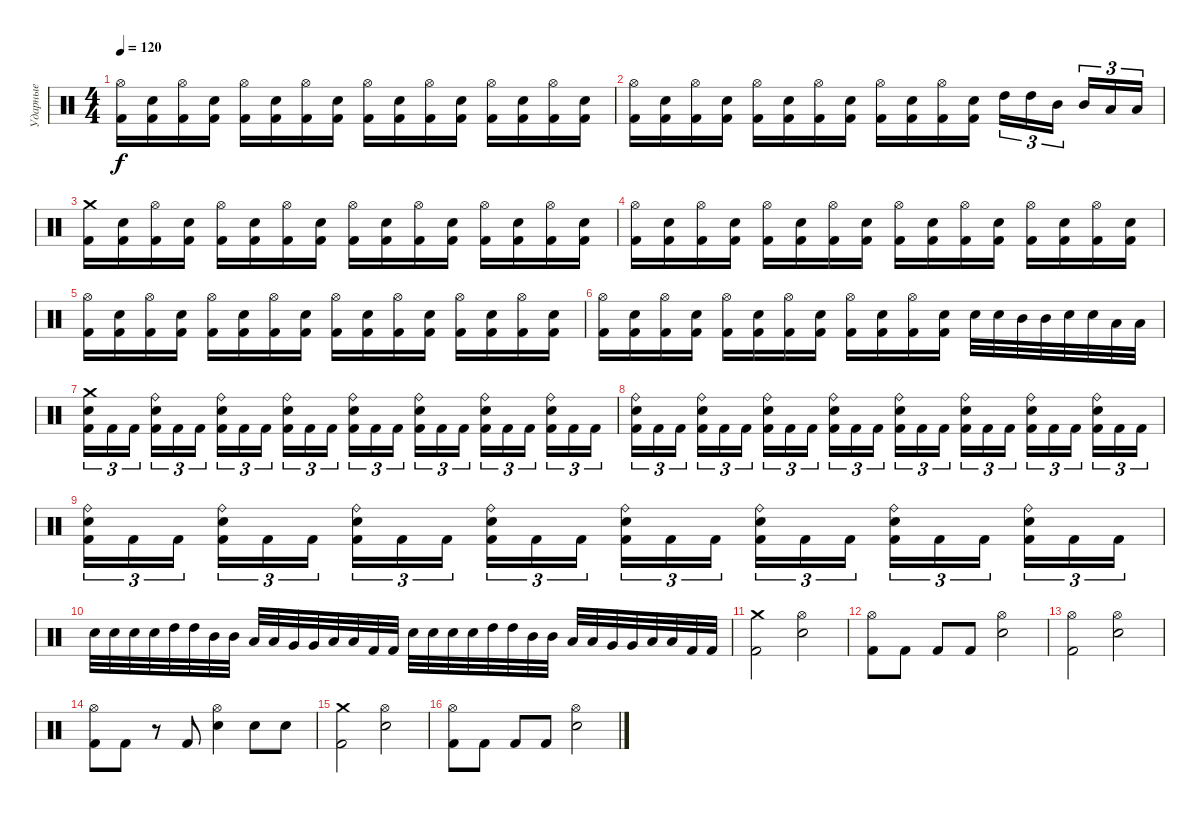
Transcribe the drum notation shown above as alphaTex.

\track ("Ударные" "Ударные") {instrument percussion}
\staff {score}
\articulation defaults
\ts (4 4)
\tempo 120
\clef neutral
\ks c
("Hi-Hat (open)" "Kick (hit) 2").16{dy f} ("Electric Snare (hit)" "Kick (hit) 2").16 ("Hi-Hat (open)" "Kick (hit) 2").16 ("Electric Snare (hit)" "Kick (hit) 2").16 ("Hi-Hat (open)" "Kick (hit) 2").16 ("Electric Snare (hit)" "Kick (hit) 2").16 ("Hi-Hat (open)" "Kick (hit) 2").16 ("Electric Snare (hit)" "Kick (hit) 2").16 ("Hi-Hat (open)" "Kick (hit) 2").16 ("Electric Snare (hit)" "Kick (hit) 2").16 ("Hi-Hat (open)" "Kick (hit) 2").16 ("Electric Snare (hit)" "Kick (hit) 2").16 ("Hi-Hat (open)" "Kick (hit) 2").16 ("Electric Snare (hit)" "Kick (hit) 2").16 ("Hi-Hat (open)" "Kick (hit) 2").16 ("Electric Snare (hit)" "Kick (hit) 2").16 |
("Hi-Hat (open)" "Kick (hit) 2").16 ("Electric Snare (hit)" "Kick (hit) 2").16 ("Hi-Hat (open)" "Kick (hit) 2").16 ("Electric Snare (hit)" "Kick (hit) 2").16 ("Hi-Hat (open)" "Kick (hit) 2").16 ("Electric Snare (hit)" "Kick (hit) 2").16 ("Hi-Hat (open)" "Kick (hit) 2").16 ("Electric Snare (hit)" "Kick (hit) 2").16 ("Hi-Hat (open)" "Kick (hit) 2").16 ("Electric Snare (hit)" "Kick (hit) 2").16 ("Hi-Hat (open)" "Kick (hit) 2").16 ("Electric Snare (hit)" "Kick (hit) 2").16 "High Tom (hit)".16{tu (3 2)} "High Tom (hit)".16{tu (3 2)} "Mid Tom (hit)".16{tu (3 2) beam splitsecondary} "Mid Tom (hit)".16{tu (3 2)} "Low Tom (hit)".16{tu (3 2)} "Low Tom (hit)".16{tu (3 2)} |
("Crash medium (hit)" "Kick (hit) 2").16 ("Electric Snare (hit)" "Kick (hit) 2").16 ("Hi-Hat (open)" "Kick (hit) 2").16 ("Electric Snare (hit)" "Kick (hit) 2").16 ("Hi-Hat (open)" "Kick (hit) 2").16 ("Electric Snare (hit)" "Kick (hit) 2").16 ("Hi-Hat (open)" "Kick (hit) 2").16 ("Electric Snare (hit)" "Kick (hit) 2").16 ("Hi-Hat (open)" "Kick (hit) 2").16 ("Electric Snare (hit)" "Kick (hit) 2").16 ("Hi-Hat (open)" "Kick (hit) 2").16 ("Electric Snare (hit)" "Kick (hit) 2").16 ("Hi-Hat (open)" "Kick (hit) 2").16 ("Electric Snare (hit)" "Kick (hit) 2").16 ("Hi-Hat (open)" "Kick (hit) 2").16 ("Electric Snare (hit)" "Kick (hit) 2").16 |
("Hi-Hat (open)" "Kick (hit) 2").16 ("Electric Snare (hit)" "Kick (hit) 2").16 ("Hi-Hat (open)" "Kick (hit) 2").16 ("Electric Snare (hit)" "Kick (hit) 2").16 ("Hi-Hat (open)" "Kick (hit) 2").16 ("Electric Snare (hit)" "Kick (hit) 2").16 ("Hi-Hat (open)" "Kick (hit) 2").16 ("Electric Snare (hit)" "Kick (hit) 2").16 ("Hi-Hat (open)" "Kick (hit) 2").16 ("Electric Snare (hit)" "Kick (hit) 2").16 ("Hi-Hat (open)" "Kick (hit) 2").16 ("Electric Snare (hit)" "Kick (hit) 2").16 ("Hi-Hat (open)" "Kick (hit) 2").16 ("Electric Snare (hit)" "Kick (hit) 2").16 ("Hi-Hat (open)" "Kick (hit) 2").16 ("Electric Snare (hit)" "Kick (hit) 2").16 |
("Hi-Hat (open)" "Kick (hit) 2").16 ("Electric Snare (hit)" "Kick (hit) 2").16 ("Hi-Hat (open)" "Kick (hit) 2").16 ("Electric Snare (hit)" "Kick (hit) 2").16 ("Hi-Hat (open)" "Kick (hit) 2").16 ("Electric Snare (hit)" "Kick (hit) 2").16 ("Hi-Hat (open)" "Kick (hit) 2").16 ("Electric Snare (hit)" "Kick (hit) 2").16 ("Hi-Hat (open)" "Kick (hit) 2").16 ("Electric Snare (hit)" "Kick (hit) 2").16 ("Hi-Hat (open)" "Kick (hit) 2").16 ("Electric Snare (hit)" "Kick (hit) 2").16 ("Hi-Hat (open)" "Kick (hit) 2").16 ("Electric Snare (hit)" "Kick (hit) 2").16 ("Hi-Hat (open)" "Kick (hit) 2").16 ("Electric Snare (hit)" "Kick (hit) 2").16 |
("Hi-Hat (open)" "Kick (hit) 2").16 ("Electric Snare (hit)" "Kick (hit) 2").16 ("Hi-Hat (open)" "Kick (hit) 2").16 ("Electric Snare (hit)" "Kick (hit) 2").16 ("Hi-Hat (open)" "Kick (hit) 2").16 ("Electric Snare (hit)" "Kick (hit) 2").16 ("Hi-Hat (open)" "Kick (hit) 2").16 ("Electric Snare (hit)" "Kick (hit) 2").16 ("Hi-Hat (open)" "Kick (hit) 2").16 ("Electric Snare (hit)" "Kick (hit) 2").16 ("Hi-Hat (open)" "Kick (hit) 2").16 ("Electric Snare (hit)" "Kick (hit) 2").16 "Electric Snare (hit)".32 "Electric Snare (hit)".32 "Mid Tom (hit)".32 "Mid Tom (hit)".32 "Electric Snare (hit)".32 "Electric Snare (hit)".32 "Low Tom (hit)".32 "Low Tom (hit)".32 |
("Crash medium (hit)" "Electric Snare (hit)" "Kick (hit) 2").16{tu (3 2)} "Kick (hit) 2".16{tu (3 2)} "Kick (hit) 2".16{tu (3 2) beam splitsecondary} ("Ride (bell)" "Electric Snare (hit)" "Kick (hit) 2").16{tu (3 2)} "Kick (hit) 2".16{tu (3 2)} "Kick (hit) 2".16{tu (3 2)} ("Ride (bell)" "Electric Snare (hit)" "Kick (hit) 2").16{tu (3 2)} "Kick (hit) 2".16{tu (3 2)} "Kick (hit) 2".16{tu (3 2) beam splitsecondary} ("Ride (bell)" "Electric Snare (hit)" "Kick (hit) 2").16{tu (3 2)} "Kick (hit) 2".16{tu (3 2)} "Kick (hit) 2".16{tu (3 2)} ("Ride (bell)" "Electric Snare (hit)" "Kick (hit) 2").16{tu (3 2)} "Kick (hit) 2".16{tu (3 2)} "Kick (hit) 2".16{tu (3 2) beam splitsecondary} ("Ride (bell)" "Electric Snare (hit)" "Kick (hit) 2").16{tu (3 2)} "Kick (hit) 2".16{tu (3 2)} "Kick (hit) 2".16{tu (3 2)} ("Ride (bell)" "Electric Snare (hit)" "Kick (hit) 2").16{tu (3 2)} "Kick (hit) 2".16{tu (3 2)} "Kick (hit) 2".16{tu (3 2) beam splitsecondary} ("Ride (bell)" "Electric Snare (hit)" "Kick (hit) 2").16{tu (3 2)} "Kick (hit) 2".16{tu (3 2)} "Kick (hit) 2".16{tu (3 2)} |
("Ride (bell)" "Electric Snare (hit)" "Kick (hit) 2").16{tu (3 2)} "Kick (hit) 2".16{tu (3 2)} "Kick (hit) 2".16{tu (3 2) beam splitsecondary} ("Ride (bell)" "Electric Snare (hit)" "Kick (hit) 2").16{tu (3 2)} "Kick (hit) 2".16{tu (3 2)} "Kick (hit) 2".16{tu (3 2)} ("Ride (bell)" "Electric Snare (hit)" "Kick (hit) 2").16{tu (3 2)} "Kick (hit) 2".16{tu (3 2)} "Kick (hit) 2".16{tu (3 2) beam splitsecondary} ("Ride (bell)" "Electric Snare (hit)" "Kick (hit) 2").16{tu (3 2)} "Kick (hit) 2".16{tu (3 2)} "Kick (hit) 2".16{tu (3 2)} ("Ride (bell)" "Electric Snare (hit)" "Kick (hit) 2").16{tu (3 2)} "Kick (hit) 2".16{tu (3 2)} "Kick (hit) 2".16{tu (3 2) beam splitsecondary} ("Ride (bell)" "Electric Snare (hit)" "Kick (hit) 2").16{tu (3 2)} "Kick (hit) 2".16{tu (3 2)} "Kick (hit) 2".16{tu (3 2)} ("Ride (bell)" "Electric Snare (hit)" "Kick (hit) 2").16{tu (3 2)} "Kick (hit) 2".16{tu (3 2)} "Kick (hit) 2".16{tu (3 2) beam splitsecondary} ("Ride (bell)" "Electric Snare (hit)" "Kick (hit) 2").16{tu (3 2)} "Kick (hit) 2".16{tu (3 2)} "Kick (hit) 2".16{tu (3 2)} |
("Ride (bell)" "Electric Snare (hit)" "Kick (hit) 2").16{tu (3 2)} "Kick (hit) 2".16{tu (3 2)} "Kick (hit) 2".16{tu (3 2) beam splitsecondary} ("Ride (bell)" "Electric Snare (hit)" "Kick (hit) 2").16{tu (3 2)} "Kick (hit) 2".16{tu (3 2)} "Kick (hit) 2".16{tu (3 2)} ("Ride (bell)" "Electric Snare (hit)" "Kick (hit) 2").16{tu (3 2)} "Kick (hit) 2".16{tu (3 2)} "Kick (hit) 2".16{tu (3 2) beam splitsecondary} ("Ride (bell)" "Electric Snare (hit)" "Kick (hit) 2").16{tu (3 2)} "Kick (hit) 2".16{tu (3 2)} "Kick (hit) 2".16{tu (3 2)} ("Ride (bell)" "Electric Snare (hit)" "Kick (hit) 2").16{tu (3 2)} "Kick (hit) 2".16{tu (3 2)} "Kick (hit) 2".16{tu (3 2) beam splitsecondary} ("Ride (bell)" "Electric Snare (hit)" "Kick (hit) 2").16{tu (3 2)} "Kick (hit) 2".16{tu (3 2)} "Kick (hit) 2".16{tu (3 2)} ("Ride (bell)" "Electric Snare (hit)" "Kick (hit) 2").16{tu (3 2)} "Kick (hit) 2".16{tu (3 2)} "Kick (hit) 2".16{tu (3 2) beam splitsecondary} ("Ride (bell)" "Electric Snare (hit)" "Kick (hit) 2").16{tu (3 2)} "Kick (hit) 2".16{tu (3 2)} "Kick (hit) 2".16{tu (3 2)} |
"Electric Snare (hit)".32 "Electric Snare (hit)".32 "Electric Snare (hit)".32 "Electric Snare (hit)".32 "High Tom (hit)".32 "High Tom (hit)".32 "Mid Tom (hit)".32 "Mid Tom (hit)".32 "Low Tom (hit)".32 "Low Tom (hit)".32 "Very Low Tom (hit)".32 "Very Low Tom (hit)".32 "Low Floor Tom (hit)".32 "Low Floor Tom (hit)".32 "Kick (hit) 2".32 "Kick (hit) 2".32 "Electric Snare (hit)".32 "Electric Snare (hit)".32 "Electric Snare (hit)".32 "Electric Snare (hit)".32 "High Tom (hit)".32 "High Tom (hit)".32 "Mid Tom (hit)".32 "Mid Tom (hit)".32 "Low Tom (hit)".32 "Low Tom (hit)".32 "Very Low Tom (hit)".32 "Very Low Tom (hit)".32 "Low Floor Tom (hit)".32 "Low Floor Tom (hit)".32 "Kick (hit) 2".32 "Kick (hit) 2".32 |
("Crash medium (hit)" "Kick (hit) 2").2 ("Hi-Hat (open)" "Electric Snare (hit)").2 |
("Hi-Hat (open)" "Kick (hit) 2").8 "Kick (hit) 2".8 "Kick (hit) 2".8 "Kick (hit) 2".8 ("Hi-Hat (open)" "Electric Snare (hit)").2 |
("Hi-Hat (open)" "Kick (hit) 2").2 ("Hi-Hat (open)" "Electric Snare (hit)").2 |
("Hi-Hat (open)" "Kick (hit) 2").8 "Kick (hit) 2".8 r.8 "Kick (hit) 2".8 ("Hi-Hat (open)" "Electric Snare (hit)").4 "Electric Snare (hit)".8 "Electric Snare (hit)".8 |
("Crash medium (hit)" "Kick (hit) 2").2 ("Hi-Hat (open)" "Electric Snare (hit)").2 |
("Hi-Hat (open)" "Kick (hit) 2").8 "Kick (hit) 2".8 "Kick (hit) 2".8 "Kick (hit) 2".8 ("Hi-Hat (open)" "Electric Snare (hit)").2
